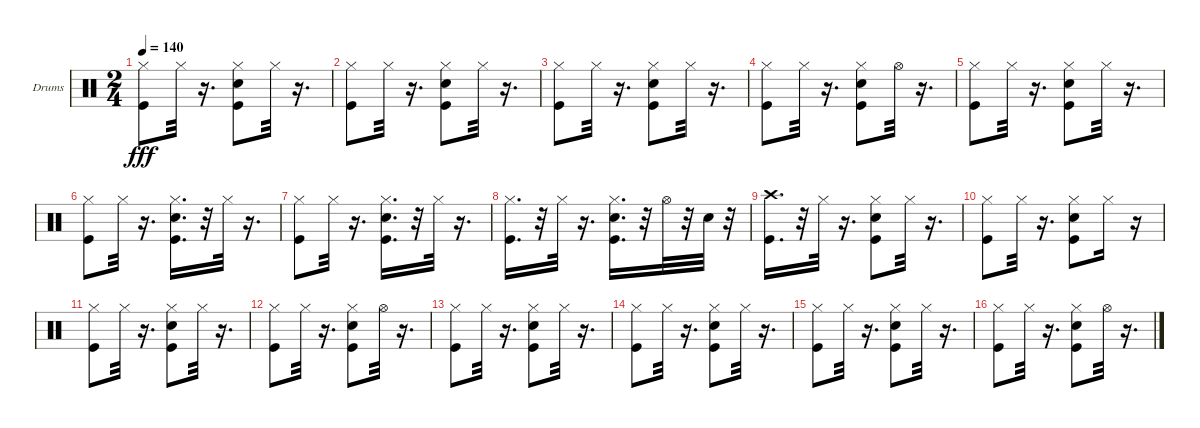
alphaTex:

\bracketExtendMode groupsimilarinstruments
\firstSystemTrackNameOrientation horizontal
\otherSystemsTrackNameOrientation horizontal
\track ("Ударные" "Drums") {instrument percussion}
\staff {score}
\articulation defaults
\ts (2 4)
\tempo 140
\clef neutral
\ks c
("Kick (hit)" "Hi-Hat (closed)").8{dy fff} "Hi-Hat (closed)".32 r.16{d} ("Snare (hit) 2" "Kick (hit)" "Hi-Hat (closed)").8 "Hi-Hat (closed)".32 r.16{d} |
("Kick (hit)" "Hi-Hat (closed)").8 "Hi-Hat (closed)".32 r.16{d} ("Snare (hit) 2" "Kick (hit)" "Hi-Hat (closed)").8 "Hi-Hat (closed)".32 r.16{d} |
("Kick (hit)" "Hi-Hat (closed)").8 "Hi-Hat (closed)".32 r.16{d} ("Kick (hit)" "Hi-Hat (closed)" "Snare (hit) 2").8 "Hi-Hat (closed)".32 r.16{d} |
("Kick (hit)" "Hi-Hat (closed)").8 "Hi-Hat (closed)".32 r.16{d} ("Kick (hit)" "Hi-Hat (closed)" "Snare (hit) 2").8 "Hi-Hat (open)".32 r.16{d} |
("Kick (hit)" "Hi-Hat (closed)").8 "Hi-Hat (closed)".32 r.16{d} ("Snare (hit) 2" "Kick (hit)" "Hi-Hat (closed)").8 "Hi-Hat (closed)".32 r.16{d} |
("Kick (hit)" "Hi-Hat (closed)").8 "Hi-Hat (closed)".32 r.16{d} ("Snare (hit) 2" "Kick (hit)" "Hi-Hat (closed)").16{d} r.32 "Hi-Hat (closed)".32 r.16{d} |
("Kick (hit)" "Hi-Hat (closed)").8 "Hi-Hat (closed)".32 r.16{d} ("Snare (hit) 2" "Kick (hit)" "Hi-Hat (closed)").16{d} r.32 "Hi-Hat (closed)".32 r.16{d} |
("Kick (hit)" "Hi-Hat (closed)").16{d} r.32 "Hi-Hat (closed)".32 r.16{d} ("Snare (hit) 2" "Kick (hit)" "Hi-Hat (closed)").16{d} r.32 "Hi-Hat (open)".32 r.32 "Snare (hit) 2".32 r.32 |
("Crash high (hit)" "Kick (hit)").16{d} r.32 "Hi-Hat (closed)".32 r.16{d} ("Snare (hit) 2" "Hi-Hat (closed)" "Kick (hit)").8 "Hi-Hat (closed)".32 r.16{d} |
("Kick (hit)" "Hi-Hat (closed)").8 "Hi-Hat (closed)".32 r.16{d} ("Snare (hit) 2" "Kick (hit)" "Hi-Hat (closed)").8 "Hi-Hat (closed)".16 r.16 |
("Kick (hit)" "Hi-Hat (closed)").8 "Hi-Hat (closed)".32 r.16{d} ("Snare (hit) 2" "Kick (hit)" "Hi-Hat (closed)").8 "Hi-Hat (closed)".32 r.16{d} |
("Kick (hit)" "Hi-Hat (closed)").8 "Hi-Hat (closed)".32 r.16{d} ("Snare (hit) 2" "Hi-Hat (closed)" "Kick (hit)").8 "Hi-Hat (open)".32 r.16{d} |
("Kick (hit)" "Hi-Hat (closed)").8 "Hi-Hat (closed)".32 r.16{d} ("Hi-Hat (closed)" "Snare (hit) 2" "Kick (hit)").8 "Hi-Hat (closed)".32 r.16{d} |
("Kick (hit)" "Hi-Hat (closed)").8 "Hi-Hat (closed)".32 r.16{d} ("Snare (hit) 2" "Kick (hit)" "Hi-Hat (closed)").8 "Hi-Hat (closed)".32 r.16{d} |
("Kick (hit)" "Hi-Hat (closed)").8 "Hi-Hat (closed)".32 r.16{d} ("Snare (hit) 2" "Kick (hit)" "Hi-Hat (closed)").8 "Hi-Hat (closed)".32 r.16{d} |
("Kick (hit)" "Hi-Hat (closed)").8 "Hi-Hat (closed)".32 r.16{d} ("Hi-Hat (closed)" "Snare (hit) 2" "Kick (hit)").8 "Hi-Hat (open)".32 r.16{d}
